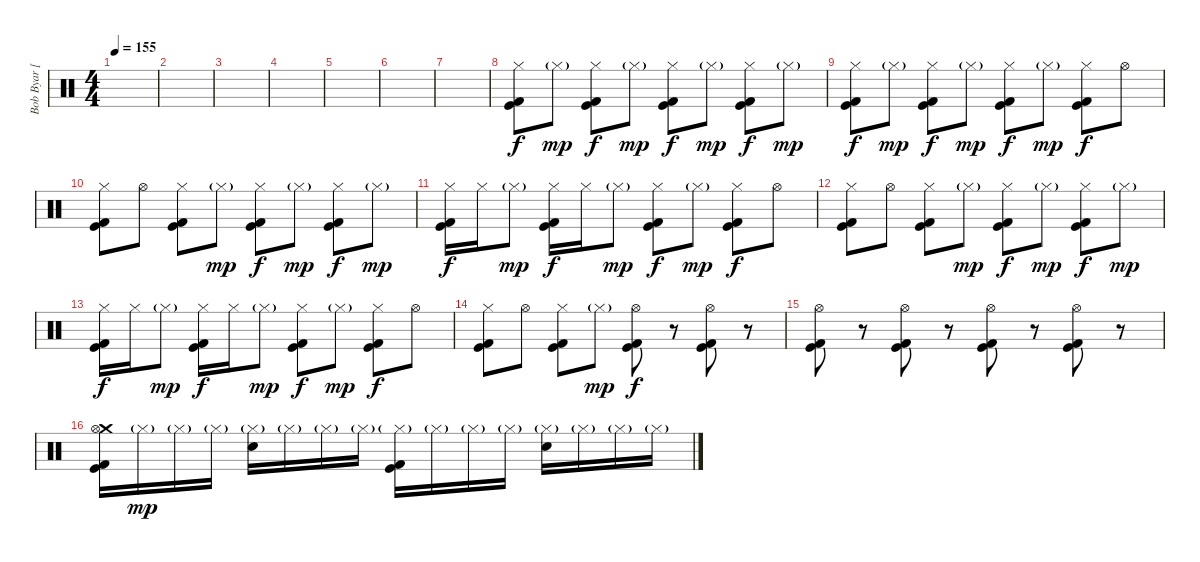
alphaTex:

\track ("Bob Byar [Drums]" "Bob Byar [") {instrument percussion}
\staff {score}
\articulation defaults
\ts (4 4)
\tempo 155
\clef neutral
\ks c
|
|
|
|
|
|
|
("Hi-Hat (closed)" "Kick (hit)" "Kick (hit) 2").8 "Hi-Hat (closed)"{g}.8{dy mp} ("Hi-Hat (closed)" "Kick (hit)" "Kick (hit) 2").8{dy f} "Hi-Hat (closed)"{g}.8{dy mp} ("Hi-Hat (closed)" "Kick (hit)" "Kick (hit) 2").8{dy f} "Hi-Hat (closed)"{g}.8{dy mp} ("Hi-Hat (closed)" "Kick (hit)" "Kick (hit) 2").8{dy f} "Hi-Hat (closed)"{g}.8{dy mp} |
("Hi-Hat (closed)" "Kick (hit)" "Kick (hit) 2").8{dy f} "Hi-Hat (closed)"{g}.8{dy mp} ("Hi-Hat (closed)" "Kick (hit)" "Kick (hit) 2").8{dy f} "Hi-Hat (closed)"{g}.8{dy mp} ("Hi-Hat (closed)" "Kick (hit)" "Kick (hit) 2").8{dy f} "Hi-Hat (closed)"{g}.8{dy mp} ("Hi-Hat (closed)" "Kick (hit)" "Kick (hit) 2").8{dy f} "Hi-Hat (open)".8 |
("Hi-Hat (closed)" "Kick (hit)" "Kick (hit) 2").8 "Hi-Hat (open)".8 ("Hi-Hat (closed)" "Kick (hit)" "Kick (hit) 2").8 "Hi-Hat (closed)"{g}.8{dy mp} ("Hi-Hat (closed)" "Kick (hit)" "Kick (hit) 2").8{dy f} "Hi-Hat (closed)"{g}.8{dy mp} ("Hi-Hat (closed)" "Kick (hit)" "Kick (hit) 2").8{dy f} "Hi-Hat (closed)"{g}.8{dy mp} |
("Hi-Hat (closed)" "Kick (hit)" "Kick (hit) 2").16{dy f} "Hi-Hat (closed)".16 "Hi-Hat (closed)"{g}.8{dy mp} ("Hi-Hat (closed)" "Kick (hit)" "Kick (hit) 2").16{dy f} "Hi-Hat (closed)".16 "Hi-Hat (closed)"{g}.8{dy mp} ("Hi-Hat (closed)" "Kick (hit)" "Kick (hit) 2").8{dy f} "Hi-Hat (closed)"{g}.8{dy mp} ("Hi-Hat (closed)" "Kick (hit)" "Kick (hit) 2").8{dy f} "Hi-Hat (open)".8 |
("Hi-Hat (closed)" "Kick (hit)" "Kick (hit) 2").8 "Hi-Hat (open)".8 ("Hi-Hat (closed)" "Kick (hit)" "Kick (hit) 2").8 "Hi-Hat (closed)"{g}.8{dy mp} ("Hi-Hat (closed)" "Kick (hit)" "Kick (hit) 2").8{dy f} "Hi-Hat (closed)"{g}.8{dy mp} ("Hi-Hat (closed)" "Kick (hit)" "Kick (hit) 2").8{dy f} "Hi-Hat (closed)"{g}.8{dy mp} |
("Hi-Hat (closed)" "Kick (hit)" "Kick (hit) 2").16{dy f} "Hi-Hat (closed)".16 "Hi-Hat (closed)"{g}.8{dy mp} ("Hi-Hat (closed)" "Kick (hit)" "Kick (hit) 2").16{dy f} "Hi-Hat (closed)".16 "Hi-Hat (closed)"{g}.8{dy mp} ("Hi-Hat (closed)" "Kick (hit)" "Kick (hit) 2").8{dy f} "Hi-Hat (closed)"{g}.8{dy mp} ("Hi-Hat (closed)" "Kick (hit)" "Kick (hit) 2").8{dy f} "Hi-Hat (open)".8 |
("Hi-Hat (closed)" "Kick (hit)" "Kick (hit) 2").8 "Hi-Hat (open)".8 ("Hi-Hat (closed)" "Kick (hit)" "Kick (hit) 2").8 "Hi-Hat (closed)"{g}.8{dy mp} ("Hi-Hat (open)" "Kick (hit)" "Kick (hit) 2").8{dy f} r.8 ("Hi-Hat (open)" "Kick (hit)" "Kick (hit) 2").8 r.8 |
("Hi-Hat (open)" "Kick (hit)" "Kick (hit) 2").8 r.8 ("Hi-Hat (open)" "Kick (hit)" "Kick (hit) 2").8 r.8 ("Hi-Hat (open)" "Kick (hit)" "Kick (hit) 2").8 r.8 ("Hi-Hat (open)" "Kick (hit)" "Kick (hit) 2").8 r.8 |
("Crash medium (hit)" "Hi-Hat (open)" "Kick (hit)" "Kick (hit) 2").16 "Hi-Hat (closed)"{g}.16{dy mp} "Hi-Hat (closed)"{g}.16 "Hi-Hat (closed)"{g}.16 ("Hi-Hat (closed)"{g} "Electric Snare (hit)").16 "Hi-Hat (closed)"{g}.16 "Hi-Hat (closed)"{g}.16 "Hi-Hat (closed)"{g}.16 ("Hi-Hat (closed)"{g} "Kick (hit)" "Kick (hit) 2").16 "Hi-Hat (closed)"{g}.16 "Hi-Hat (closed)"{g}.16 "Hi-Hat (closed)"{g}.16 ("Hi-Hat (closed)"{g} "Electric Snare (hit)").16 "Hi-Hat (closed)"{g}.16 "Hi-Hat (closed)"{g}.16 "Hi-Hat (closed)"{g}.16
